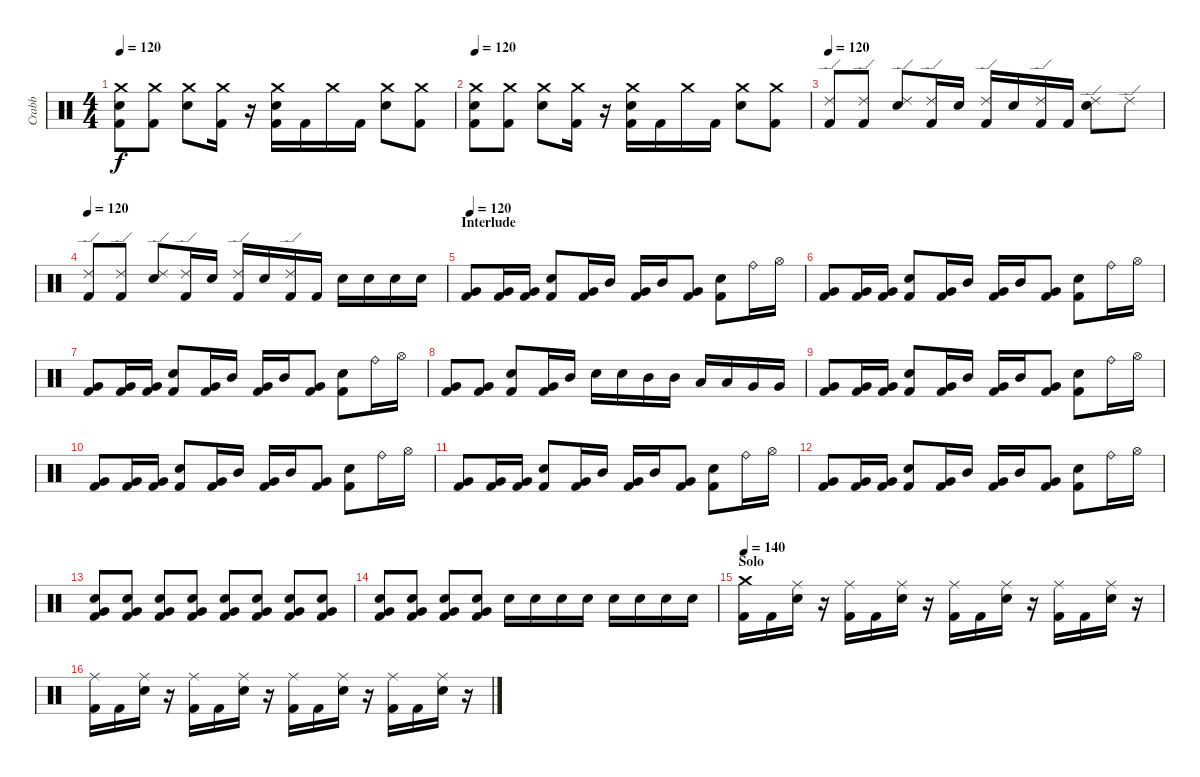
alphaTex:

\track ("Crabb" "Crabb") {instrument percussion}
\staff {score}
\articulation defaults
\ts (4 4)
\tempo 120
\clef neutral
\ks c
("Crash medium (hit)" "Kick (hit) 2" "Electric Snare (hit)").8{dy f} ("Crash medium (hit)" "Kick (hit) 2").8 ("Crash medium (hit)" "Electric Snare (hit)").8 ("Crash medium (hit)" "Kick (hit) 2").16 r.16 ("Crash medium (hit)" "Kick (hit) 2" "Electric Snare (hit)").16 "Kick (hit) 2".16 "Crash medium (hit)".16 "Kick (hit) 2".16 ("Crash medium (hit)" "Electric Snare (hit)").8 ("Crash medium (hit)" "Kick (hit) 2").8 |
\tempo 120
("Crash medium (hit)" "Kick (hit) 2" "Electric Snare (hit)").8 ("Crash medium (hit)" "Kick (hit) 2").8 ("Crash medium (hit)" "Electric Snare (hit)").8 ("Crash medium (hit)" "Kick (hit) 2").16 r.16 ("Crash medium (hit)" "Kick (hit) 2" "Electric Snare (hit)").16 "Kick (hit) 2".16 "Crash medium (hit)".16 "Kick (hit) 2".16 ("Crash medium (hit)" "Electric Snare (hit)").8 ("Crash medium (hit)" "Kick (hit) 2").8 |
\tempo 120
("Ride (edge) 2" "Kick (hit) 2").8 ("Ride (edge) 2" "Kick (hit) 2").8 ("Ride (edge) 2" "Electric Snare (hit)").8 ("Ride (edge) 2" "Kick (hit) 2").16 "Electric Snare (hit)".16 ("Ride (edge) 2" "Kick (hit) 2").16 "Electric Snare (hit)".16 ("Ride (edge) 2" "Kick (hit) 2").16 "Kick (hit) 2".16 ("Ride (edge) 2" "Electric Snare (hit)").8 "Ride (edge) 2".8 |
\tempo 120
("Ride (edge) 2" "Kick (hit) 2").8 ("Ride (edge) 2" "Kick (hit) 2").8 ("Ride (edge) 2" "Electric Snare (hit)").8 ("Ride (edge) 2" "Kick (hit) 2").16 "Electric Snare (hit)".16 ("Ride (edge) 2" "Kick (hit) 2").16 "Electric Snare (hit)".16 ("Ride (edge) 2" "Kick (hit) 2").16 "Kick (hit) 2".16 "Electric Snare (hit)".16 "Electric Snare (hit)".16 "Electric Snare (hit)".16 "Electric Snare (hit)".16 |
\section ("" "Interlude")
\tempo 120
("Very Low Tom (hit)" "Kick (hit) 2").8 ("Very Low Tom (hit)" "Kick (hit) 2").16 ("Very Low Tom (hit)" "Kick (hit) 2").16 ("Electric Snare (hit)" "Kick (hit) 2").8 ("Very Low Tom (hit)" "Kick (hit) 2").16 "Mid Tom (hit)".16 ("Very Low Tom (hit)" "Kick (hit) 2").16 "Mid Tom (hit)".16 ("Very Low Tom (hit)" "Kick (hit) 2").8 ("Electric Snare (hit)" "Kick (hit) 2").8 "Ride (bell)".16 "Hi-Hat (open)".16 |
("Very Low Tom (hit)" "Kick (hit) 2").8 ("Very Low Tom (hit)" "Kick (hit) 2").16 ("Very Low Tom (hit)" "Kick (hit) 2").16 ("Electric Snare (hit)" "Kick (hit) 2").8 ("Very Low Tom (hit)" "Kick (hit) 2").16 "Mid Tom (hit)".16 ("Very Low Tom (hit)" "Kick (hit) 2").16 "Mid Tom (hit)".16 ("Very Low Tom (hit)" "Kick (hit) 2").8 ("Electric Snare (hit)" "Kick (hit) 2").8 "Ride (bell)".16 "Hi-Hat (open)".16 |
("Very Low Tom (hit)" "Kick (hit) 2").8 ("Very Low Tom (hit)" "Kick (hit) 2").16 ("Very Low Tom (hit)" "Kick (hit) 2").16 ("Electric Snare (hit)" "Kick (hit) 2").8 ("Very Low Tom (hit)" "Kick (hit) 2").16 "Mid Tom (hit)".16 ("Very Low Tom (hit)" "Kick (hit) 2").16 "Mid Tom (hit)".16 ("Very Low Tom (hit)" "Kick (hit) 2").8 ("Electric Snare (hit)" "Kick (hit) 2").8 "Ride (bell)".16 "Hi-Hat (open)".16 |
("Very Low Tom (hit)" "Kick (hit) 2").8 ("Very Low Tom (hit)" "Kick (hit) 2").8 ("Electric Snare (hit)" "Kick (hit) 2").8 ("Very Low Tom (hit)" "Kick (hit) 2").16 "Mid Tom (hit)".16 "Electric Snare (hit)".16 "Electric Snare (hit)".16 "Mid Tom (hit)".16 "Mid Tom (hit)".16 "Low Tom (hit)".16 "Low Tom (hit)".16 "Very Low Tom (hit)".16 "Very Low Tom (hit)".16 |
("Very Low Tom (hit)" "Kick (hit) 2").8 ("Very Low Tom (hit)" "Kick (hit) 2").16 ("Very Low Tom (hit)" "Kick (hit) 2").16 ("Electric Snare (hit)" "Kick (hit) 2").8 ("Very Low Tom (hit)" "Kick (hit) 2").16 "Mid Tom (hit)".16 ("Very Low Tom (hit)" "Kick (hit) 2").16 "Mid Tom (hit)".16 ("Very Low Tom (hit)" "Kick (hit) 2").8 ("Electric Snare (hit)" "Kick (hit) 2").8 "Ride (bell)".16 "Hi-Hat (open)".16 |
("Very Low Tom (hit)" "Kick (hit) 2").8 ("Very Low Tom (hit)" "Kick (hit) 2").16 ("Very Low Tom (hit)" "Kick (hit) 2").16 ("Electric Snare (hit)" "Kick (hit) 2").8 ("Very Low Tom (hit)" "Kick (hit) 2").16 "Mid Tom (hit)".16 ("Very Low Tom (hit)" "Kick (hit) 2").16 "Mid Tom (hit)".16 ("Very Low Tom (hit)" "Kick (hit) 2").8 ("Electric Snare (hit)" "Kick (hit) 2").8 "Ride (bell)".16 "Hi-Hat (open)".16 |
("Very Low Tom (hit)" "Kick (hit) 2").8 ("Very Low Tom (hit)" "Kick (hit) 2").16 ("Very Low Tom (hit)" "Kick (hit) 2").16 ("Electric Snare (hit)" "Kick (hit) 2").8 ("Very Low Tom (hit)" "Kick (hit) 2").16 "Mid Tom (hit)".16 ("Very Low Tom (hit)" "Kick (hit) 2").16 "Mid Tom (hit)".16 ("Very Low Tom (hit)" "Kick (hit) 2").8 ("Electric Snare (hit)" "Kick (hit) 2").8 "Ride (bell)".16 "Hi-Hat (open)".16 |
("Very Low Tom (hit)" "Kick (hit) 2").8 ("Very Low Tom (hit)" "Kick (hit) 2").16 ("Very Low Tom (hit)" "Kick (hit) 2").16 ("Electric Snare (hit)" "Kick (hit) 2").8 ("Very Low Tom (hit)" "Kick (hit) 2").16 "Mid Tom (hit)".16 ("Very Low Tom (hit)" "Kick (hit) 2").16 "Mid Tom (hit)".16 ("Very Low Tom (hit)" "Kick (hit) 2").8 ("Electric Snare (hit)" "Kick (hit) 2").8 "Ride (bell)".16 "Hi-Hat (open)".16 |
("Electric Snare (hit)" "Very Low Tom (hit)" "Kick (hit) 2").8 ("Electric Snare (hit)" "Very Low Tom (hit)" "Kick (hit) 2").8 ("Electric Snare (hit)" "Very Low Tom (hit)" "Kick (hit) 2").8 ("Electric Snare (hit)" "Very Low Tom (hit)" "Kick (hit) 2").8 ("Electric Snare (hit)" "Very Low Tom (hit)" "Kick (hit) 2").8 ("Electric Snare (hit)" "Very Low Tom (hit)" "Kick (hit) 2").8 ("Electric Snare (hit)" "Very Low Tom (hit)" "Kick (hit) 2").8 ("Electric Snare (hit)" "Very Low Tom (hit)" "Kick (hit) 2").8 |
("Electric Snare (hit)" "Very Low Tom (hit)" "Kick (hit) 2").8 ("Electric Snare (hit)" "Very Low Tom (hit)" "Kick (hit) 2").8 ("Electric Snare (hit)" "Very Low Tom (hit)" "Kick (hit) 2").8 ("Electric Snare (hit)" "Very Low Tom (hit)" "Kick (hit) 2").8 "Electric Snare (hit)".16 "Electric Snare (hit)".16 "Electric Snare (hit)".16 "Electric Snare (hit)".16 "Electric Snare (hit)".16 "Electric Snare (hit)".16 "Electric Snare (hit)".16 "Electric Snare (hit)".16 |
\section ("" "Solo")
\tempo 140
("Kick (hit) 2" "Crash medium (hit)").16 "Kick (hit) 2".16 ("Ride (middle)" "Electric Snare (hit)").16 r.16 ("Ride (middle)" "Kick (hit) 2").16 "Kick (hit) 2".16 ("Ride (middle)" "Electric Snare (hit)").16 r.16 ("Ride (middle)" "Kick (hit) 2").16 "Kick (hit) 2".16 ("Ride (middle)" "Electric Snare (hit)").16 r.16 ("Ride (middle)" "Kick (hit) 2").16 "Kick (hit) 2".16 ("Ride (middle)" "Electric Snare (hit)").16 r.16 |
("Ride (middle)" "Kick (hit) 2").16 "Kick (hit) 2".16 ("Ride (middle)" "Electric Snare (hit)").16 r.16 ("Ride (middle)" "Kick (hit) 2").16 "Kick (hit) 2".16 ("Ride (middle)" "Electric Snare (hit)").16 r.16 ("Ride (middle)" "Kick (hit) 2").16 "Kick (hit) 2".16 ("Ride (middle)" "Electric Snare (hit)").16 r.16 ("Ride (middle)" "Kick (hit) 2").16 "Kick (hit) 2".16 ("Ride (middle)" "Electric Snare (hit)").16 r.16
